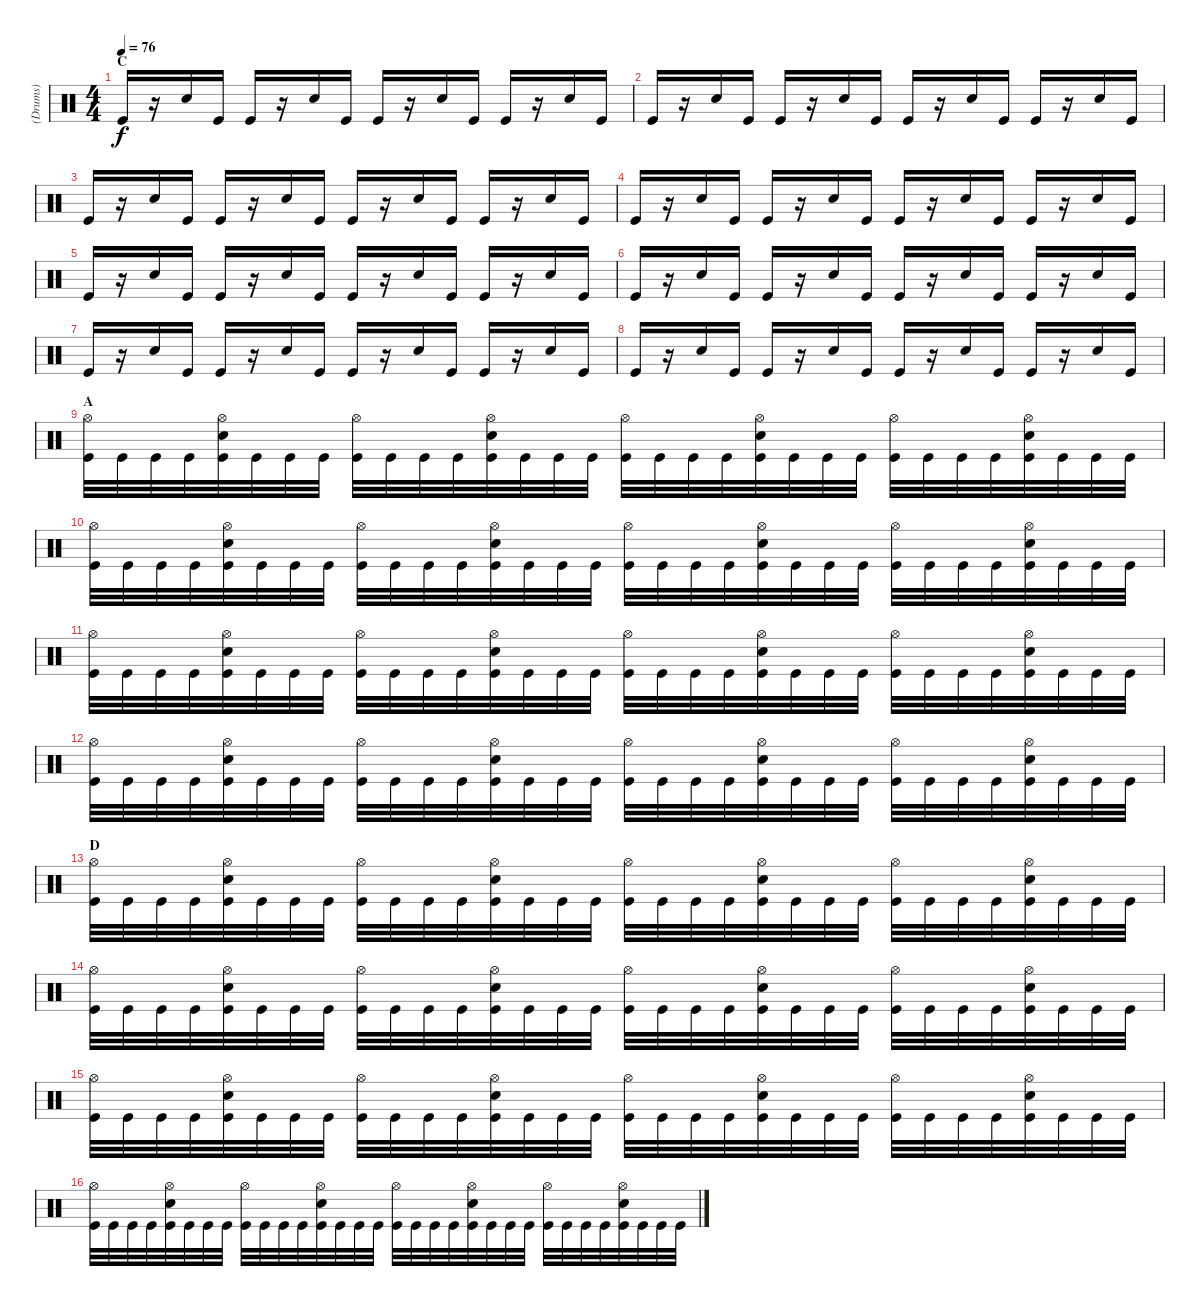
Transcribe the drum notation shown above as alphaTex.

\track ("(Drums)" "(Drums)") {instrument percussion}
\staff {score}
\articulation defaults
\ts (4 4)
\section ("" "C")
\tempo 76
\clef neutral
\ks c "Kick (hit)".16{dy f}
r.16 "Electric Snare (hit)".16 "Kick (hit)".16 "Kick (hit)".16 r.16 "Electric Snare (hit)".16 "Kick (hit)".16 "Kick (hit)".16 r.16 "Electric Snare (hit)".16 "Kick (hit)".16 "Kick (hit)".16 r.16 "Electric Snare (hit)".16 "Kick (hit)".16 |
"Kick (hit)".16 r.16 "Electric Snare (hit)".16 "Kick (hit)".16 "Kick (hit)".16 r.16 "Electric Snare (hit)".16 "Kick (hit)".16 "Kick (hit)".16 r.16 "Electric Snare (hit)".16 "Kick (hit)".16 "Kick (hit)".16 r.16 "Electric Snare (hit)".16 "Kick (hit)".16 |
"Kick (hit)".16 r.16 "Electric Snare (hit)".16 "Kick (hit)".16 "Kick (hit)".16 r.16 "Electric Snare (hit)".16 "Kick (hit)".16 "Kick (hit)".16 r.16 "Electric Snare (hit)".16 "Kick (hit)".16 "Kick (hit)".16 r.16 "Electric Snare (hit)".16 "Kick (hit)".16 |
"Kick (hit)".16 r.16 "Electric Snare (hit)".16 "Kick (hit)".16 "Kick (hit)".16 r.16 "Electric Snare (hit)".16 "Kick (hit)".16 "Kick (hit)".16 r.16 "Electric Snare (hit)".16 "Kick (hit)".16 "Kick (hit)".16 r.16 "Electric Snare (hit)".16 "Kick (hit)".16 |
"Kick (hit)".16 r.16 "Electric Snare (hit)".16 "Kick (hit)".16 "Kick (hit)".16 r.16 "Electric Snare (hit)".16 "Kick (hit)".16 "Kick (hit)".16 r.16 "Electric Snare (hit)".16 "Kick (hit)".16 "Kick (hit)".16 r.16 "Electric Snare (hit)".16 "Kick (hit)".16 |
"Kick (hit)".16 r.16 "Electric Snare (hit)".16 "Kick (hit)".16 "Kick (hit)".16 r.16 "Electric Snare (hit)".16 "Kick (hit)".16 "Kick (hit)".16 r.16 "Electric Snare (hit)".16 "Kick (hit)".16 "Kick (hit)".16 r.16 "Electric Snare (hit)".16 "Kick (hit)".16 |
"Kick (hit)".16 r.16 "Electric Snare (hit)".16 "Kick (hit)".16 "Kick (hit)".16 r.16 "Electric Snare (hit)".16 "Kick (hit)".16 "Kick (hit)".16 r.16 "Electric Snare (hit)".16 "Kick (hit)".16 "Kick (hit)".16 r.16 "Electric Snare (hit)".16 "Kick (hit)".16 |
"Kick (hit)".16 r.16 "Electric Snare (hit)".16 "Kick (hit)".16 "Kick (hit)".16 r.16 "Electric Snare (hit)".16 "Kick (hit)".16 "Kick (hit)".16 r.16 "Electric Snare (hit)".16 "Kick (hit)".16 "Kick (hit)".16 r.16 "Electric Snare (hit)".16 "Kick (hit)".16 |
\section ("" "A")
("Hi-Hat (open)" "Kick (hit)").32 "Kick (hit)".32 "Kick (hit)".32 "Kick (hit)".32 ("Hi-Hat (open)" "Electric Snare (hit)" "Kick (hit)").32 "Kick (hit)".32 "Kick (hit)".32 "Kick (hit)".32 ("Hi-Hat (open)" "Kick (hit)").32 "Kick (hit)".32 "Kick (hit)".32 "Kick (hit)".32 ("Hi-Hat (open)" "Electric Snare (hit)" "Kick (hit)").32 "Kick (hit)".32 "Kick (hit)".32 "Kick (hit)".32 ("Hi-Hat (open)" "Kick (hit)").32 "Kick (hit)".32 "Kick (hit)".32 "Kick (hit)".32 ("Hi-Hat (open)" "Electric Snare (hit)" "Kick (hit)").32 "Kick (hit)".32 "Kick (hit)".32 "Kick (hit)".32 ("Hi-Hat (open)" "Kick (hit)").32 "Kick (hit)".32 "Kick (hit)".32 "Kick (hit)".32 ("Hi-Hat (open)" "Electric Snare (hit)" "Kick (hit)").32 "Kick (hit)".32 "Kick (hit)".32 "Kick (hit)".32 |
("Hi-Hat (open)" "Kick (hit)").32 "Kick (hit)".32 "Kick (hit)".32 "Kick (hit)".32 ("Hi-Hat (open)" "Electric Snare (hit)" "Kick (hit)").32 "Kick (hit)".32 "Kick (hit)".32 "Kick (hit)".32 ("Hi-Hat (open)" "Kick (hit)").32 "Kick (hit)".32 "Kick (hit)".32 "Kick (hit)".32 ("Hi-Hat (open)" "Electric Snare (hit)" "Kick (hit)").32 "Kick (hit)".32 "Kick (hit)".32 "Kick (hit)".32 ("Hi-Hat (open)" "Kick (hit)").32 "Kick (hit)".32 "Kick (hit)".32 "Kick (hit)".32 ("Hi-Hat (open)" "Electric Snare (hit)" "Kick (hit)").32 "Kick (hit)".32 "Kick (hit)".32 "Kick (hit)".32 ("Hi-Hat (open)" "Kick (hit)").32 "Kick (hit)".32 "Kick (hit)".32 "Kick (hit)".32 ("Hi-Hat (open)" "Electric Snare (hit)" "Kick (hit)").32 "Kick (hit)".32 "Kick (hit)".32 "Kick (hit)".32 |
("Hi-Hat (open)" "Kick (hit)").32 "Kick (hit)".32 "Kick (hit)".32 "Kick (hit)".32 ("Hi-Hat (open)" "Electric Snare (hit)" "Kick (hit)").32 "Kick (hit)".32 "Kick (hit)".32 "Kick (hit)".32 ("Hi-Hat (open)" "Kick (hit)").32 "Kick (hit)".32 "Kick (hit)".32 "Kick (hit)".32 ("Hi-Hat (open)" "Electric Snare (hit)" "Kick (hit)").32 "Kick (hit)".32 "Kick (hit)".32 "Kick (hit)".32 ("Hi-Hat (open)" "Kick (hit)").32 "Kick (hit)".32 "Kick (hit)".32 "Kick (hit)".32 ("Hi-Hat (open)" "Electric Snare (hit)" "Kick (hit)").32 "Kick (hit)".32 "Kick (hit)".32 "Kick (hit)".32 ("Hi-Hat (open)" "Kick (hit)").32 "Kick (hit)".32 "Kick (hit)".32 "Kick (hit)".32 ("Hi-Hat (open)" "Electric Snare (hit)" "Kick (hit)").32 "Kick (hit)".32 "Kick (hit)".32 "Kick (hit)".32 |
("Hi-Hat (open)" "Kick (hit)").32 "Kick (hit)".32 "Kick (hit)".32 "Kick (hit)".32 ("Hi-Hat (open)" "Electric Snare (hit)" "Kick (hit)").32 "Kick (hit)".32 "Kick (hit)".32 "Kick (hit)".32 ("Hi-Hat (open)" "Kick (hit)").32 "Kick (hit)".32 "Kick (hit)".32 "Kick (hit)".32 ("Hi-Hat (open)" "Electric Snare (hit)" "Kick (hit)").32 "Kick (hit)".32 "Kick (hit)".32 "Kick (hit)".32 ("Hi-Hat (open)" "Kick (hit)").32 "Kick (hit)".32 "Kick (hit)".32 "Kick (hit)".32 ("Hi-Hat (open)" "Electric Snare (hit)" "Kick (hit)").32 "Kick (hit)".32 "Kick (hit)".32 "Kick (hit)".32 ("Hi-Hat (open)" "Kick (hit)").32 "Kick (hit)".32 "Kick (hit)".32 "Kick (hit)".32 ("Hi-Hat (open)" "Electric Snare (hit)" "Kick (hit)").32 "Kick (hit)".32 "Kick (hit)".32 "Kick (hit)".32 |
\section ("" "D")
("Hi-Hat (open)" "Kick (hit)").32 "Kick (hit)".32 "Kick (hit)".32 "Kick (hit)".32 ("Hi-Hat (open)" "Electric Snare (hit)" "Kick (hit)").32 "Kick (hit)".32 "Kick (hit)".32 "Kick (hit)".32 ("Hi-Hat (open)" "Kick (hit)").32 "Kick (hit)".32 "Kick (hit)".32 "Kick (hit)".32 ("Hi-Hat (open)" "Electric Snare (hit)" "Kick (hit)").32 "Kick (hit)".32 "Kick (hit)".32 "Kick (hit)".32 ("Hi-Hat (open)" "Kick (hit)").32 "Kick (hit)".32 "Kick (hit)".32 "Kick (hit)".32 ("Hi-Hat (open)" "Electric Snare (hit)" "Kick (hit)").32 "Kick (hit)".32 "Kick (hit)".32 "Kick (hit)".32 ("Hi-Hat (open)" "Kick (hit)").32 "Kick (hit)".32 "Kick (hit)".32 "Kick (hit)".32 ("Hi-Hat (open)" "Electric Snare (hit)" "Kick (hit)").32 "Kick (hit)".32 "Kick (hit)".32 "Kick (hit)".32 |
("Hi-Hat (open)" "Kick (hit)").32 "Kick (hit)".32 "Kick (hit)".32 "Kick (hit)".32 ("Hi-Hat (open)" "Electric Snare (hit)" "Kick (hit)").32 "Kick (hit)".32 "Kick (hit)".32 "Kick (hit)".32 ("Hi-Hat (open)" "Kick (hit)").32 "Kick (hit)".32 "Kick (hit)".32 "Kick (hit)".32 ("Hi-Hat (open)" "Electric Snare (hit)" "Kick (hit)").32 "Kick (hit)".32 "Kick (hit)".32 "Kick (hit)".32 ("Hi-Hat (open)" "Kick (hit)").32 "Kick (hit)".32 "Kick (hit)".32 "Kick (hit)".32 ("Hi-Hat (open)" "Electric Snare (hit)" "Kick (hit)").32 "Kick (hit)".32 "Kick (hit)".32 "Kick (hit)".32 ("Hi-Hat (open)" "Kick (hit)").32 "Kick (hit)".32 "Kick (hit)".32 "Kick (hit)".32 ("Hi-Hat (open)" "Electric Snare (hit)" "Kick (hit)").32 "Kick (hit)".32 "Kick (hit)".32 "Kick (hit)".32 |
("Hi-Hat (open)" "Kick (hit)").32 "Kick (hit)".32 "Kick (hit)".32 "Kick (hit)".32 ("Hi-Hat (open)" "Electric Snare (hit)" "Kick (hit)").32 "Kick (hit)".32 "Kick (hit)".32 "Kick (hit)".32 ("Hi-Hat (open)" "Kick (hit)").32 "Kick (hit)".32 "Kick (hit)".32 "Kick (hit)".32 ("Hi-Hat (open)" "Electric Snare (hit)" "Kick (hit)").32 "Kick (hit)".32 "Kick (hit)".32 "Kick (hit)".32 ("Hi-Hat (open)" "Kick (hit)").32 "Kick (hit)".32 "Kick (hit)".32 "Kick (hit)".32 ("Hi-Hat (open)" "Electric Snare (hit)" "Kick (hit)").32 "Kick (hit)".32 "Kick (hit)".32 "Kick (hit)".32 ("Hi-Hat (open)" "Kick (hit)").32 "Kick (hit)".32 "Kick (hit)".32 "Kick (hit)".32 ("Hi-Hat (open)" "Electric Snare (hit)" "Kick (hit)").32 "Kick (hit)".32 "Kick (hit)".32 "Kick (hit)".32 |
("Hi-Hat (open)" "Kick (hit)").32 "Kick (hit)".32 "Kick (hit)".32 "Kick (hit)".32 ("Hi-Hat (open)" "Electric Snare (hit)" "Kick (hit)").32 "Kick (hit)".32 "Kick (hit)".32 "Kick (hit)".32 ("Hi-Hat (open)" "Kick (hit)").32 "Kick (hit)".32 "Kick (hit)".32 "Kick (hit)".32 ("Hi-Hat (open)" "Electric Snare (hit)" "Kick (hit)").32 "Kick (hit)".32 "Kick (hit)".32 "Kick (hit)".32 ("Hi-Hat (open)" "Kick (hit)").32 "Kick (hit)".32 "Kick (hit)".32 "Kick (hit)".32 ("Hi-Hat (open)" "Electric Snare (hit)" "Kick (hit)").32 "Kick (hit)".32 "Kick (hit)".32 "Kick (hit)".32 ("Hi-Hat (open)" "Kick (hit)").32 "Kick (hit)".32 "Kick (hit)".32 "Kick (hit)".32 ("Hi-Hat (open)" "Electric Snare (hit)" "Kick (hit)").32 "Kick (hit)".32 "Kick (hit)".32 "Kick (hit)".32
